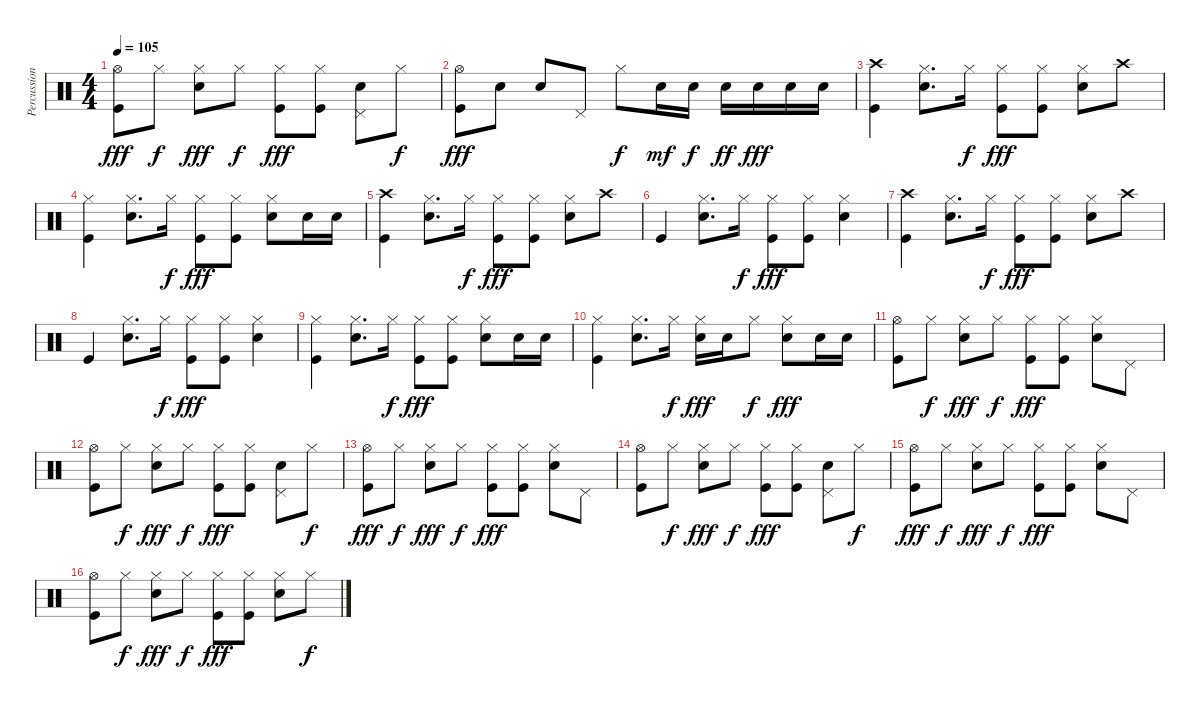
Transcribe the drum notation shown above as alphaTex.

\track ("Percussion" "Percussion") {instrument percussion}
\staff {score}
\articulation defaults
\ts (4 4)
\tempo 105
\clef neutral
\ks c
("Hi-Hat (open)" "Kick (hit)").8{dy fff} "Hi-Hat (closed)".8{dy f} ("Hi-Hat (closed)" "Electric Snare (hit)").8{dy fff} "Hi-Hat (closed)".8{dy f} ("Hi-Hat (closed)" "Kick (hit)").8{dy fff} ("Hi-Hat (closed)" "Kick (hit)").8 ("Pedal Hi-Hat (hit)" "Electric Snare (hit)").8 "Hi-Hat (closed)".8{dy f} |
("Hi-Hat (open)" "Kick (hit)").8{dy fff} "Electric Snare (hit)".8 "Electric Snare (hit)".8 "Pedal Hi-Hat (hit)".8 "Hi-Hat (closed)".8{dy f} "Electric Snare (hit)".16{dy mf} "Electric Snare (hit)".16{dy f} "Electric Snare (hit)".16{dy ff} "Electric Snare (hit)".16{dy fff} "Electric Snare (hit)".16 "Electric Snare (hit)".16 |
("Crash high (hit)" "Kick (hit)").4 ("Hi-Hat (closed)" "Electric Snare (hit)").8{d} "Hi-Hat (closed)".16{dy f} ("Hi-Hat (closed)" "Kick (hit)").8{dy fff} ("Hi-Hat (closed)" "Kick (hit)").8 ("Hi-Hat (closed)" "Electric Snare (hit)").8 "Crash high (hit)".8 |
("Hi-Hat (closed)" "Kick (hit)").4 ("Hi-Hat (closed)" "Electric Snare (hit)").8{d} "Hi-Hat (closed)".16{dy f} ("Hi-Hat (closed)" "Kick (hit)").8{dy fff} ("Hi-Hat (closed)" "Kick (hit)").8 ("Hi-Hat (closed)" "Electric Snare (hit)").8 "Electric Snare (hit)".16 "Electric Snare (hit)".16 |
("Crash high (hit)" "Kick (hit)").4 ("Hi-Hat (closed)" "Electric Snare (hit)").8{d} "Hi-Hat (closed)".16{dy f} ("Hi-Hat (closed)" "Kick (hit)").8{dy fff} ("Hi-Hat (closed)" "Kick (hit)").8 ("Hi-Hat (closed)" "Electric Snare (hit)").8 "Crash high (hit)".8 |
"Kick (hit)".4 ("Hi-Hat (closed)" "Electric Snare (hit)").8{d} "Hi-Hat (closed)".16{dy f} ("Hi-Hat (closed)" "Kick (hit)").8{dy fff} ("Hi-Hat (closed)" "Kick (hit)").8 ("Hi-Hat (closed)" "Electric Snare (hit)").4 |
("Crash high (hit)" "Kick (hit)").4 ("Hi-Hat (closed)" "Electric Snare (hit)").8{d} "Hi-Hat (closed)".16{dy f} ("Hi-Hat (closed)" "Kick (hit)").8{dy fff} ("Hi-Hat (closed)" "Kick (hit)").8 ("Hi-Hat (closed)" "Electric Snare (hit)").8 "Crash high (hit)".8 |
"Kick (hit)".4 ("Hi-Hat (closed)" "Electric Snare (hit)").8{d} "Hi-Hat (closed)".16{dy f} ("Hi-Hat (closed)" "Kick (hit)").8{dy fff} ("Hi-Hat (closed)" "Kick (hit)").8 ("Hi-Hat (closed)" "Electric Snare (hit)").4 |
("Hi-Hat (closed)" "Kick (hit)").4 ("Hi-Hat (closed)" "Electric Snare (hit)").8{d} "Hi-Hat (closed)".16{dy f} ("Hi-Hat (closed)" "Kick (hit)").8{dy fff} ("Hi-Hat (closed)" "Kick (hit)").8 ("Hi-Hat (closed)" "Electric Snare (hit)").8 "Electric Snare (hit)".16 "Electric Snare (hit)".16 |
("Hi-Hat (closed)" "Kick (hit)").4 ("Hi-Hat (closed)" "Electric Snare (hit)").8{d} "Hi-Hat (closed)".16{dy f} ("Hi-Hat (closed)" "Electric Snare (hit)").16{dy fff} "Electric Snare (hit)".16 "Hi-Hat (closed)".8{dy f} ("Hi-Hat (closed)" "Electric Snare (hit)").8{dy fff} "Electric Snare (hit)".16 "Electric Snare (hit)".16 |
("Hi-Hat (open)" "Kick (hit)").8 "Hi-Hat (closed)".8{dy f} ("Hi-Hat (closed)" "Electric Snare (hit)").8{dy fff} "Hi-Hat (closed)".8{dy f} ("Hi-Hat (closed)" "Kick (hit)").8{dy fff} ("Hi-Hat (closed)" "Kick (hit)").8 ("Hi-Hat (closed)" "Electric Snare (hit)").8 "Pedal Hi-Hat (hit)".8 |
("Hi-Hat (open)" "Kick (hit)").8 "Hi-Hat (closed)".8{dy f} ("Hi-Hat (closed)" "Electric Snare (hit)").8{dy fff} "Hi-Hat (closed)".8{dy f} ("Hi-Hat (closed)" "Kick (hit)").8{dy fff} ("Hi-Hat (closed)" "Kick (hit)").8 ("Pedal Hi-Hat (hit)" "Electric Snare (hit)").8 "Hi-Hat (closed)".8{dy f} |
("Hi-Hat (open)" "Kick (hit)").8{dy fff} "Hi-Hat (closed)".8{dy f} ("Hi-Hat (closed)" "Electric Snare (hit)").8{dy fff} "Hi-Hat (closed)".8{dy f} ("Hi-Hat (closed)" "Kick (hit)").8{dy fff} ("Hi-Hat (closed)" "Kick (hit)").8 ("Hi-Hat (closed)" "Electric Snare (hit)").8 "Pedal Hi-Hat (hit)".8 |
("Hi-Hat (open)" "Kick (hit)").8 "Hi-Hat (closed)".8{dy f} ("Hi-Hat (closed)" "Electric Snare (hit)").8{dy fff} "Hi-Hat (closed)".8{dy f} ("Hi-Hat (closed)" "Kick (hit)").8{dy fff} ("Hi-Hat (closed)" "Kick (hit)").8 ("Pedal Hi-Hat (hit)" "Electric Snare (hit)").8 "Hi-Hat (closed)".8{dy f} |
("Hi-Hat (open)" "Kick (hit)").8{dy fff} "Hi-Hat (closed)".8{dy f} ("Hi-Hat (closed)" "Electric Snare (hit)").8{dy fff} "Hi-Hat (closed)".8{dy f} ("Hi-Hat (closed)" "Kick (hit)").8{dy fff} ("Hi-Hat (closed)" "Kick (hit)").8 ("Hi-Hat (closed)" "Electric Snare (hit)").8 "Pedal Hi-Hat (hit)".8 |
("Hi-Hat (open)" "Kick (hit)").8 "Hi-Hat (closed)".8{dy f} ("Hi-Hat (closed)" "Electric Snare (hit)").8{dy fff} "Hi-Hat (closed)".8{dy f} ("Hi-Hat (closed)" "Kick (hit)").8{dy fff} ("Hi-Hat (closed)" "Kick (hit)").8 ("Hi-Hat (closed)" "Electric Snare (hit)").8 "Hi-Hat (closed)".8{dy f}
